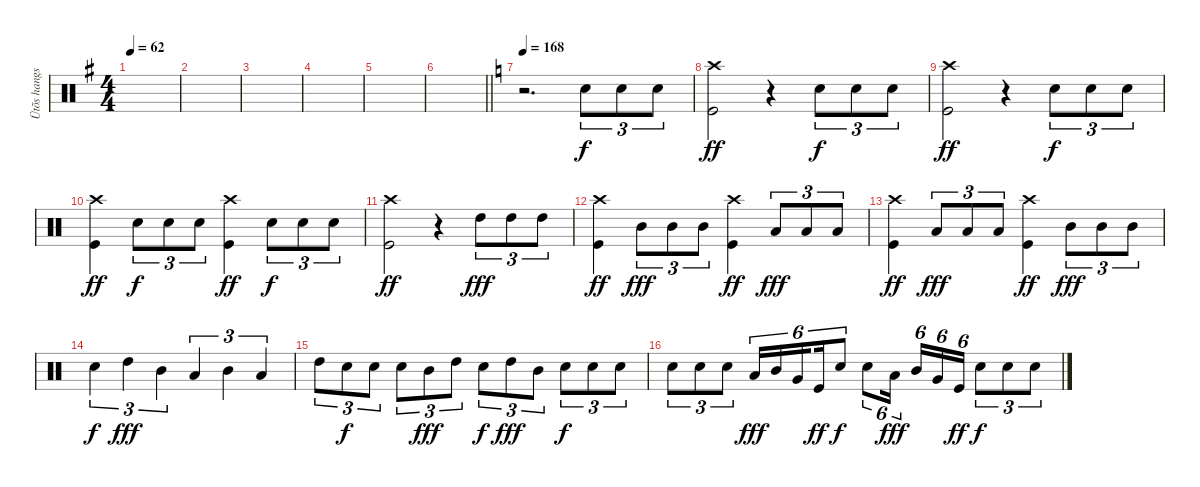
\track ("Ütõs hangszer" "Ütõs hangs") {instrument percussion}
\staff {score}
\articulation defaults
\ts (4 4)
\tempo 62
\clef neutral
\ks g
|
|
|
|
|
\barLineRight lightlight
|
\tempo 168
\ks c
r.2{d} "Electric Snare (hit)".8{tu (3 2)} "Electric Snare (hit)".8{tu (3 2)} "Electric Snare (hit)".8{tu (3 2)} |
("Crash high (hit)" "Kick (hit)").2{dy ff} r.4 "Electric Snare (hit)".8{tu (3 2) dy f} "Electric Snare (hit)".8{tu (3 2)} "Electric Snare (hit)".8{tu (3 2)} |
("Crash high (hit)" "Kick (hit)").2{dy ff} r.4 "Electric Snare (hit)".8{tu (3 2) dy f} "Electric Snare (hit)".8{tu (3 2)} "Electric Snare (hit)".8{tu (3 2)} |
("Crash high (hit)" "Kick (hit)").4{dy ff} "Electric Snare (hit)".8{tu (3 2) dy f} "Electric Snare (hit)".8{tu (3 2)} "Electric Snare (hit)".8{tu (3 2)} ("Crash high (hit)" "Kick (hit)").4{dy ff} "Electric Snare (hit)".8{tu (3 2) dy f} "Electric Snare (hit)".8{tu (3 2)} "Electric Snare (hit)".8{tu (3 2)} |
("Crash high (hit)" "Kick (hit)").2{dy ff} r.4 "High Tom (hit)".8{tu (3 2) dy fff} "High Tom (hit)".8{tu (3 2)} "High Tom (hit)".8{tu (3 2)} |
("Crash high (hit)" "Kick (hit)").4{dy ff} "Mid Tom (hit)".8{tu (3 2) dy fff} "Mid Tom (hit)".8{tu (3 2)} "Mid Tom (hit)".8{tu (3 2)} ("Crash high (hit)" "Kick (hit)").4{dy ff} "Low Tom (hit)".8{tu (3 2) dy fff} "Low Tom (hit)".8{tu (3 2)} "Low Tom (hit)".8{tu (3 2)} |
("Crash high (hit)" "Kick (hit)").4{dy ff} "Low Tom (hit)".8{tu (3 2) dy fff} "Low Tom (hit)".8{tu (3 2)} "Low Tom (hit)".8{tu (3 2)} ("Crash high (hit)" "Kick (hit)").4{dy ff} "Mid Tom (hit)".8{tu (3 2) dy fff} "Mid Tom (hit)".8{tu (3 2)} "Mid Tom (hit)".8{tu (3 2)} |
"Electric Snare (hit)".4{tu (3 2) dy f} "High Tom (hit)".4{tu (3 2) dy fff} "Mid Tom (hit)".4{tu (3 2)} "Low Tom (hit)".4{tu (3 2)} "Mid Tom (hit)".4{tu (3 2)} "Low Tom (hit)".4{tu (3 2)} |
"High Tom (hit)".8{tu (3 2)} "Electric Snare (hit)".8{tu (3 2) dy f} "Electric Snare (hit)".8{tu (3 2)} "Electric Snare (hit)".8{tu (3 2)} "Mid Tom (hit)".8{tu (3 2) dy fff} "High Tom (hit)".8{tu (3 2)} "Electric Snare (hit)".8{tu (3 2) dy f} "High Tom (hit)".8{tu (3 2) dy fff} "Mid Tom (hit)".8{tu (3 2)} "Electric Snare (hit)".8{tu (3 2) dy f} "Electric Snare (hit)".8{tu (3 2)} "Electric Snare (hit)".8{tu (3 2)} |
"Electric Snare (hit)".8{tu (3 2)} "Electric Snare (hit)".8{tu (3 2)} "Electric Snare (hit)".8{tu (3 2)} "Low Tom (hit)".16{tu (6 4) dy fff} "Mid Tom (hit)".16{tu (6 4)} "Very Low Tom (hit)".16{tu (6 4) beam splitsecondary} "Kick (hit)".16{tu (6 4) dy ff} "Electric Snare (hit)".8{tu (6 4) dy f} "Electric Snare (hit)".8{tu (6 4)} "Low Tom (hit)".16{tu (6 4) dy fff beam splitsecondary} "Mid Tom (hit)".16{tu (6 4)} "Very Low Tom (hit)".16{tu (6 4)} "Kick (hit)".16{tu (6 4) dy ff} "Electric Snare (hit)".8{tu (3 2) dy f} "Electric Snare (hit)".8{tu (3 2)} "Electric Snare (hit)".8{tu (3 2)}
